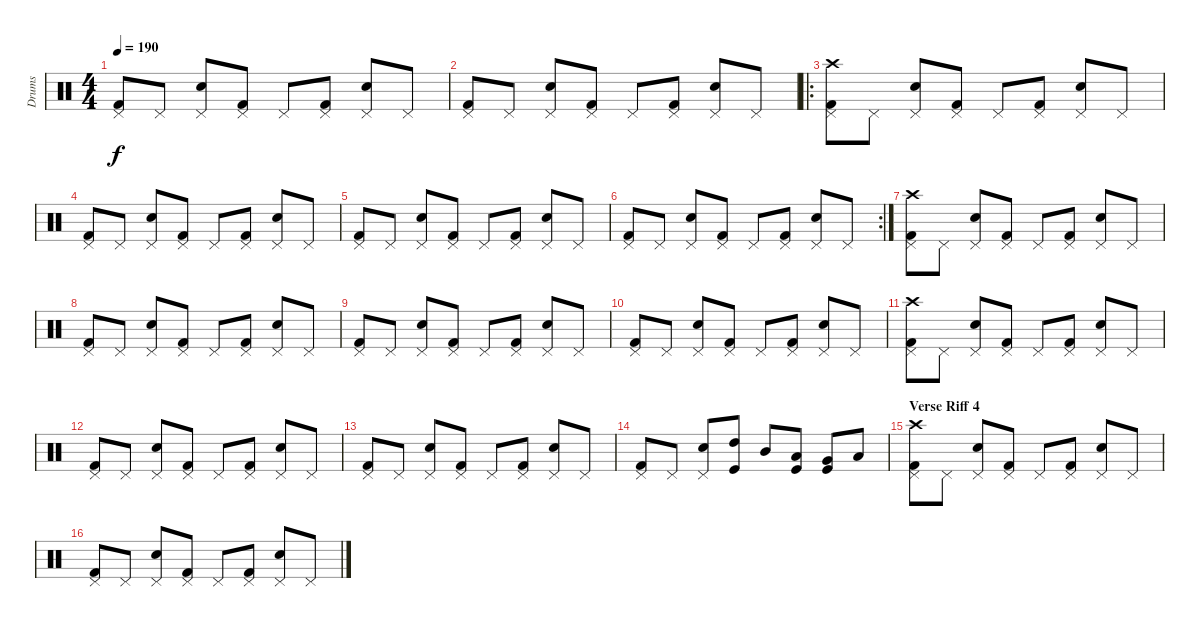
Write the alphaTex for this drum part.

\track ("Drums" "Drums") {instrument percussion}
\staff {score}
\articulation defaults
\ts (4 4)
\tempo 190
\clef neutral
\ks c
("Kick (hit) 2" "Pedal Hi-Hat (hit)").8{dy f} "Pedal Hi-Hat (hit)".8 ("Snare (hit) 2" "Pedal Hi-Hat (hit)").8 ("Kick (hit) 2" "Pedal Hi-Hat (hit)").8 "Pedal Hi-Hat (hit)".8 ("Kick (hit) 2" "Pedal Hi-Hat (hit)").8 ("Snare (hit) 2" "Pedal Hi-Hat (hit)").8 "Pedal Hi-Hat (hit)".8 |
("Kick (hit) 2" "Pedal Hi-Hat (hit)").8 "Pedal Hi-Hat (hit)".8 ("Snare (hit) 2" "Pedal Hi-Hat (hit)").8 ("Kick (hit) 2" "Pedal Hi-Hat (hit)").8 "Pedal Hi-Hat (hit)".8 ("Kick (hit) 2" "Pedal Hi-Hat (hit)").8 ("Snare (hit) 2" "Pedal Hi-Hat (hit)").8 "Pedal Hi-Hat (hit)".8 |
\ro
("Kick (hit) 2" "Pedal Hi-Hat (hit)" "Crash high (hit)").8 "Pedal Hi-Hat (hit)".8 ("Snare (hit) 2" "Pedal Hi-Hat (hit)").8 ("Kick (hit) 2" "Pedal Hi-Hat (hit)").8 "Pedal Hi-Hat (hit)".8 ("Kick (hit) 2" "Pedal Hi-Hat (hit)").8 ("Snare (hit) 2" "Pedal Hi-Hat (hit)").8 "Pedal Hi-Hat (hit)".8 |
("Kick (hit) 2" "Pedal Hi-Hat (hit)").8 "Pedal Hi-Hat (hit)".8 ("Snare (hit) 2" "Pedal Hi-Hat (hit)").8 ("Kick (hit) 2" "Pedal Hi-Hat (hit)").8 "Pedal Hi-Hat (hit)".8 ("Kick (hit) 2" "Pedal Hi-Hat (hit)").8 ("Snare (hit) 2" "Pedal Hi-Hat (hit)").8 "Pedal Hi-Hat (hit)".8 |
("Kick (hit) 2" "Pedal Hi-Hat (hit)").8 "Pedal Hi-Hat (hit)".8 ("Snare (hit) 2" "Pedal Hi-Hat (hit)").8 ("Kick (hit) 2" "Pedal Hi-Hat (hit)").8 "Pedal Hi-Hat (hit)".8 ("Kick (hit) 2" "Pedal Hi-Hat (hit)").8 ("Snare (hit) 2" "Pedal Hi-Hat (hit)").8 "Pedal Hi-Hat (hit)".8 |
\rc 2
("Kick (hit) 2" "Pedal Hi-Hat (hit)").8 "Pedal Hi-Hat (hit)".8 ("Snare (hit) 2" "Pedal Hi-Hat (hit)").8 ("Kick (hit) 2" "Pedal Hi-Hat (hit)").8 "Pedal Hi-Hat (hit)".8 ("Kick (hit) 2" "Pedal Hi-Hat (hit)").8 ("Snare (hit) 2" "Pedal Hi-Hat (hit)").8 "Pedal Hi-Hat (hit)".8 |
("Kick (hit) 2" "Pedal Hi-Hat (hit)" "Crash high (hit)").8 "Pedal Hi-Hat (hit)".8 ("Snare (hit) 2" "Pedal Hi-Hat (hit)").8 ("Kick (hit) 2" "Pedal Hi-Hat (hit)").8 "Pedal Hi-Hat (hit)".8 ("Kick (hit) 2" "Pedal Hi-Hat (hit)").8 ("Snare (hit) 2" "Pedal Hi-Hat (hit)").8 "Pedal Hi-Hat (hit)".8 |
("Kick (hit) 2" "Pedal Hi-Hat (hit)").8 "Pedal Hi-Hat (hit)".8 ("Snare (hit) 2" "Pedal Hi-Hat (hit)").8 ("Kick (hit) 2" "Pedal Hi-Hat (hit)").8 "Pedal Hi-Hat (hit)".8 ("Kick (hit) 2" "Pedal Hi-Hat (hit)").8 ("Snare (hit) 2" "Pedal Hi-Hat (hit)").8 "Pedal Hi-Hat (hit)".8 |
("Kick (hit) 2" "Pedal Hi-Hat (hit)").8 "Pedal Hi-Hat (hit)".8 ("Snare (hit) 2" "Pedal Hi-Hat (hit)").8 ("Kick (hit) 2" "Pedal Hi-Hat (hit)").8 "Pedal Hi-Hat (hit)".8 ("Kick (hit) 2" "Pedal Hi-Hat (hit)").8 ("Snare (hit) 2" "Pedal Hi-Hat (hit)").8 "Pedal Hi-Hat (hit)".8 |
("Kick (hit) 2" "Pedal Hi-Hat (hit)").8 "Pedal Hi-Hat (hit)".8 ("Snare (hit) 2" "Pedal Hi-Hat (hit)").8 ("Kick (hit) 2" "Pedal Hi-Hat (hit)").8 "Pedal Hi-Hat (hit)".8 ("Kick (hit) 2" "Pedal Hi-Hat (hit)").8 ("Snare (hit) 2" "Pedal Hi-Hat (hit)").8 "Pedal Hi-Hat (hit)".8 |
("Kick (hit) 2" "Pedal Hi-Hat (hit)" "Crash high (hit)").8 "Pedal Hi-Hat (hit)".8 ("Snare (hit) 2" "Pedal Hi-Hat (hit)").8 ("Kick (hit) 2" "Pedal Hi-Hat (hit)").8 "Pedal Hi-Hat (hit)".8 ("Kick (hit) 2" "Pedal Hi-Hat (hit)").8 ("Snare (hit) 2" "Pedal Hi-Hat (hit)").8 "Pedal Hi-Hat (hit)".8 |
("Kick (hit) 2" "Pedal Hi-Hat (hit)").8 "Pedal Hi-Hat (hit)".8 ("Snare (hit) 2" "Pedal Hi-Hat (hit)").8 ("Kick (hit) 2" "Pedal Hi-Hat (hit)").8 "Pedal Hi-Hat (hit)".8 ("Kick (hit) 2" "Pedal Hi-Hat (hit)").8 ("Snare (hit) 2" "Pedal Hi-Hat (hit)").8 "Pedal Hi-Hat (hit)".8 |
("Kick (hit) 2" "Pedal Hi-Hat (hit)").8 "Pedal Hi-Hat (hit)".8 ("Snare (hit) 2" "Pedal Hi-Hat (hit)").8 ("Kick (hit) 2" "Pedal Hi-Hat (hit)").8 "Pedal Hi-Hat (hit)".8 ("Kick (hit) 2" "Pedal Hi-Hat (hit)").8 ("Snare (hit) 2" "Pedal Hi-Hat (hit)").8 "Pedal Hi-Hat (hit)".8 |
("Kick (hit) 2" "Pedal Hi-Hat (hit)").8 "Pedal Hi-Hat (hit)".8 ("Snare (hit) 2" "Pedal Hi-Hat (hit)").8 ("High Tom (hit)" "Kick (hit)").8 "Mid Tom (hit)".8 ("Low Tom (hit)" "Kick (hit)").8 ("Very Low Tom (hit)" "Kick (hit)").8 "Low Floor Tom (hit)".8 |
\section ("" "Verse Riff 4")
("Kick (hit) 2" "Pedal Hi-Hat (hit)" "Crash high (hit)").8 "Pedal Hi-Hat (hit)".8 ("Snare (hit) 2" "Pedal Hi-Hat (hit)").8 ("Kick (hit) 2" "Pedal Hi-Hat (hit)").8 "Pedal Hi-Hat (hit)".8 ("Kick (hit) 2" "Pedal Hi-Hat (hit)").8 ("Snare (hit) 2" "Pedal Hi-Hat (hit)").8 "Pedal Hi-Hat (hit)".8 |
("Kick (hit) 2" "Pedal Hi-Hat (hit)").8 "Pedal Hi-Hat (hit)".8 ("Snare (hit) 2" "Pedal Hi-Hat (hit)").8 ("Kick (hit) 2" "Pedal Hi-Hat (hit)").8 "Pedal Hi-Hat (hit)".8 ("Kick (hit) 2" "Pedal Hi-Hat (hit)").8 ("Snare (hit) 2" "Pedal Hi-Hat (hit)").8 "Pedal Hi-Hat (hit)".8
